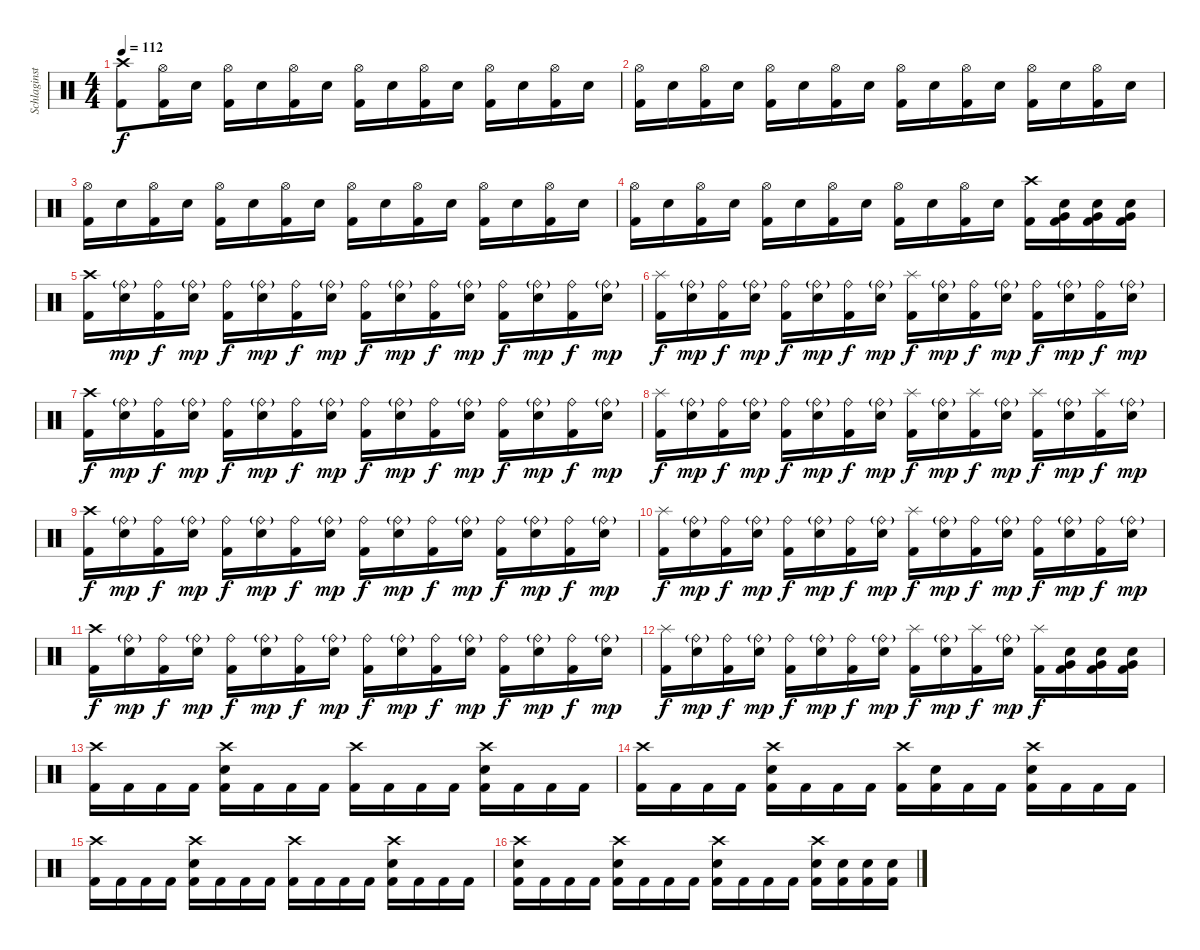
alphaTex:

\track ("Schlaginstrumente - Auswahl" "Schlaginst") {instrument percussion}
\staff {score}
\articulation defaults
\ts (4 4)
\tempo 112
\clef neutral
\ks c
("Crash high (hit)" "Kick (hit) 2").8{dy f} ("Hi-Hat (open)" "Kick (hit) 2").16 "Snare (hit) 2".16 ("Hi-Hat (open)" "Kick (hit) 2").16 "Snare (hit) 2".16 ("Hi-Hat (open)" "Kick (hit) 2").16 "Snare (hit) 2".16 ("Hi-Hat (open)" "Kick (hit) 2").16 "Snare (hit) 2".16 ("Hi-Hat (open)" "Kick (hit) 2").16 "Snare (hit) 2".16 ("Hi-Hat (open)" "Kick (hit) 2").16 "Snare (hit) 2".16 ("Hi-Hat (open)" "Kick (hit) 2").16 "Snare (hit) 2".16 |
("Hi-Hat (open)" "Kick (hit) 2").16 "Snare (hit) 2".16 ("Hi-Hat (open)" "Kick (hit) 2").16 "Snare (hit) 2".16 ("Hi-Hat (open)" "Kick (hit) 2").16 "Snare (hit) 2".16 ("Hi-Hat (open)" "Kick (hit) 2").16 "Snare (hit) 2".16 ("Hi-Hat (open)" "Kick (hit) 2").16 "Snare (hit) 2".16 ("Hi-Hat (open)" "Kick (hit) 2").16 "Snare (hit) 2".16 ("Hi-Hat (open)" "Kick (hit) 2").16 "Snare (hit) 2".16 ("Hi-Hat (open)" "Kick (hit) 2").16 "Snare (hit) 2".16 |
("Hi-Hat (open)" "Kick (hit) 2").16 "Snare (hit) 2".16 ("Hi-Hat (open)" "Kick (hit) 2").16 "Snare (hit) 2".16 ("Hi-Hat (open)" "Kick (hit) 2").16 "Snare (hit) 2".16 ("Hi-Hat (open)" "Kick (hit) 2").16 "Snare (hit) 2".16 ("Hi-Hat (open)" "Kick (hit) 2").16 "Snare (hit) 2".16 ("Hi-Hat (open)" "Kick (hit) 2").16 "Snare (hit) 2".16 ("Hi-Hat (open)" "Kick (hit) 2").16 "Snare (hit) 2".16 ("Hi-Hat (open)" "Kick (hit) 2").16 "Snare (hit) 2".16 |
("Hi-Hat (open)" "Kick (hit) 2").16 "Snare (hit) 2".16 ("Hi-Hat (open)" "Kick (hit) 2").16 "Snare (hit) 2".16 ("Hi-Hat (open)" "Kick (hit) 2").16 "Snare (hit) 2".16 ("Hi-Hat (open)" "Kick (hit) 2").16 "Snare (hit) 2".16 ("Hi-Hat (open)" "Kick (hit) 2").16 "Snare (hit) 2".16 ("Hi-Hat (open)" "Kick (hit) 2").16 "Snare (hit) 2".16 ("Crash high (hit)" "Kick (hit) 2").16 ("Snare (hit) 2" "Very Low Tom (hit)" "Kick (hit) 2").16 ("Snare (hit) 2" "Very Low Tom (hit)" "Kick (hit) 2").16 ("Snare (hit) 2" "Very Low Tom (hit)" "Kick (hit) 2").16 |
("Crash high (hit)" "Kick (hit) 2").16 ("Ride (bell)"{g} "Snare (hit) 2").16{dy mp} ("Ride (bell)" "Kick (hit) 2").16{dy f} ("Ride (bell)"{g} "Snare (hit) 2").16{dy mp} ("Ride (bell)" "Kick (hit) 2").16{dy f} ("Ride (bell)"{g} "Snare (hit) 2").16{dy mp} ("Ride (bell)" "Kick (hit) 2").16{dy f} ("Ride (bell)"{g} "Snare (hit) 2").16{dy mp} ("Ride (bell)" "Kick (hit) 2").16{dy f} ("Ride (bell)"{g} "Snare (hit) 2").16{dy mp} ("Ride (bell)" "Kick (hit) 2").16{dy f} ("Ride (bell)"{g} "Snare (hit) 2").16{dy mp} ("Ride (bell)" "Kick (hit) 2").16{dy f} ("Ride (bell)"{g} "Snare (hit) 2").16{dy mp} ("Ride (bell)" "Kick (hit) 2").16{dy f} ("Ride (bell)"{g} "Snare (hit) 2").16{dy mp} |
("Splash (hit)" "Kick (hit) 2").16{dy f} ("Ride (bell)"{g} "Snare (hit) 2").16{dy mp} ("Ride (bell)" "Kick (hit) 2").16{dy f} ("Ride (bell)"{g} "Snare (hit) 2").16{dy mp} ("Ride (bell)" "Kick (hit) 2").16{dy f} ("Ride (bell)"{g} "Snare (hit) 2").16{dy mp} ("Ride (bell)" "Kick (hit) 2").16{dy f} ("Ride (bell)"{g} "Snare (hit) 2").16{dy mp} ("Splash (hit)" "Kick (hit) 2").16{dy f} ("Ride (bell)"{g} "Snare (hit) 2").16{dy mp} ("Ride (bell)" "Kick (hit) 2").16{dy f} ("Ride (bell)"{g} "Snare (hit) 2").16{dy mp} ("Ride (bell)" "Kick (hit) 2").16{dy f} ("Ride (bell)"{g} "Snare (hit) 2").16{dy mp} ("Ride (bell)" "Kick (hit) 2").16{dy f} ("Ride (bell)"{g} "Snare (hit) 2").16{dy mp} |
("Crash high (hit)" "Kick (hit) 2").16{dy f} ("Ride (bell)"{g} "Snare (hit) 2").16{dy mp} ("Ride (bell)" "Kick (hit) 2").16{dy f} ("Ride (bell)"{g} "Snare (hit) 2").16{dy mp} ("Ride (bell)" "Kick (hit) 2").16{dy f} ("Ride (bell)"{g} "Snare (hit) 2").16{dy mp} ("Ride (bell)" "Kick (hit) 2").16{dy f} ("Ride (bell)"{g} "Snare (hit) 2").16{dy mp} ("Ride (bell)" "Kick (hit) 2").16{dy f} ("Ride (bell)"{g} "Snare (hit) 2").16{dy mp} ("Ride (bell)" "Kick (hit) 2").16{dy f} ("Ride (bell)"{g} "Snare (hit) 2").16{dy mp} ("Ride (bell)" "Kick (hit) 2").16{dy f} ("Ride (bell)"{g} "Snare (hit) 2").16{dy mp} ("Ride (bell)" "Kick (hit) 2").16{dy f} ("Ride (bell)"{g} "Snare (hit) 2").16{dy mp} |
("Splash (hit)" "Kick (hit) 2").16{dy f} ("Ride (bell)"{g} "Snare (hit) 2").16{dy mp} ("Ride (bell)" "Kick (hit) 2").16{dy f} ("Ride (bell)"{g} "Snare (hit) 2").16{dy mp} ("Ride (bell)" "Kick (hit) 2").16{dy f} ("Ride (bell)"{g} "Snare (hit) 2").16{dy mp} ("Ride (bell)" "Kick (hit) 2").16{dy f} ("Ride (bell)"{g} "Snare (hit) 2").16{dy mp} ("Splash (hit)" "Kick (hit) 2").16{dy f} ("Ride (bell)"{g} "Snare (hit) 2").16{dy mp} ("Splash (hit)" "Kick (hit) 2").16{dy f} ("Ride (bell)"{g} "Snare (hit) 2").16{dy mp} ("Splash (hit)" "Kick (hit) 2").16{dy f} ("Ride (bell)"{g} "Snare (hit) 2").16{dy mp} ("Splash (hit)" "Kick (hit) 2").16{dy f} ("Ride (bell)"{g} "Snare (hit) 2").16{dy mp} |
("Crash high (hit)" "Kick (hit) 2").16{dy f} ("Ride (bell)"{g} "Snare (hit) 2").16{dy mp} ("Ride (bell)" "Kick (hit) 2").16{dy f} ("Ride (bell)"{g} "Snare (hit) 2").16{dy mp} ("Ride (bell)" "Kick (hit) 2").16{dy f} ("Ride (bell)"{g} "Snare (hit) 2").16{dy mp} ("Ride (bell)" "Kick (hit) 2").16{dy f} ("Ride (bell)"{g} "Snare (hit) 2").16{dy mp} ("Ride (bell)" "Kick (hit) 2").16{dy f} ("Ride (bell)"{g} "Snare (hit) 2").16{dy mp} ("Ride (bell)" "Kick (hit) 2").16{dy f} ("Ride (bell)"{g} "Snare (hit) 2").16{dy mp} ("Ride (bell)" "Kick (hit) 2").16{dy f} ("Ride (bell)"{g} "Snare (hit) 2").16{dy mp} ("Ride (bell)" "Kick (hit) 2").16{dy f} ("Ride (bell)"{g} "Snare (hit) 2").16{dy mp} |
("Splash (hit)" "Kick (hit) 2").16{dy f} ("Ride (bell)"{g} "Snare (hit) 2").16{dy mp} ("Ride (bell)" "Kick (hit) 2").16{dy f} ("Ride (bell)"{g} "Snare (hit) 2").16{dy mp} ("Ride (bell)" "Kick (hit) 2").16{dy f} ("Ride (bell)"{g} "Snare (hit) 2").16{dy mp} ("Ride (bell)" "Kick (hit) 2").16{dy f} ("Ride (bell)"{g} "Snare (hit) 2").16{dy mp} ("Splash (hit)" "Kick (hit) 2").16{dy f} ("Ride (bell)"{g} "Snare (hit) 2").16{dy mp} ("Ride (bell)" "Kick (hit) 2").16{dy f} ("Ride (bell)"{g} "Snare (hit) 2").16{dy mp} ("Ride (bell)" "Kick (hit) 2").16{dy f} ("Ride (bell)"{g} "Snare (hit) 2").16{dy mp} ("Ride (bell)" "Kick (hit) 2").16{dy f} ("Ride (bell)"{g} "Snare (hit) 2").16{dy mp} |
("Crash high (hit)" "Kick (hit) 2").16{dy f} ("Ride (bell)"{g} "Snare (hit) 2").16{dy mp} ("Ride (bell)" "Kick (hit) 2").16{dy f} ("Ride (bell)"{g} "Snare (hit) 2").16{dy mp} ("Ride (bell)" "Kick (hit) 2").16{dy f} ("Ride (bell)"{g} "Snare (hit) 2").16{dy mp} ("Ride (bell)" "Kick (hit) 2").16{dy f} ("Ride (bell)"{g} "Snare (hit) 2").16{dy mp} ("Ride (bell)" "Kick (hit) 2").16{dy f} ("Ride (bell)"{g} "Snare (hit) 2").16{dy mp} ("Ride (bell)" "Kick (hit) 2").16{dy f} ("Ride (bell)"{g} "Snare (hit) 2").16{dy mp} ("Ride (bell)" "Kick (hit) 2").16{dy f} ("Ride (bell)"{g} "Snare (hit) 2").16{dy mp} ("Ride (bell)" "Kick (hit) 2").16{dy f} ("Ride (bell)"{g} "Snare (hit) 2").16{dy mp} |
("Splash (hit)" "Kick (hit) 2").16{dy f} ("Ride (bell)"{g} "Snare (hit) 2").16{dy mp} ("Ride (bell)" "Kick (hit) 2").16{dy f} ("Ride (bell)"{g} "Snare (hit) 2").16{dy mp} ("Ride (bell)" "Kick (hit) 2").16{dy f} ("Ride (bell)"{g} "Snare (hit) 2").16{dy mp} ("Ride (bell)" "Kick (hit) 2").16{dy f} ("Ride (bell)"{g} "Snare (hit) 2").16{dy mp} ("Splash (hit)" "Kick (hit) 2").16{dy f} ("Ride (bell)"{g} "Snare (hit) 2").16{dy mp} ("Splash (hit)" "Kick (hit) 2").16{dy f} ("Ride (bell)"{g} "Snare (hit) 2").16{dy mp} ("Splash (hit)" "Kick (hit) 2").16{dy f} ("Snare (hit) 2" "Very Low Tom (hit)" "Kick (hit) 2").16 ("Snare (hit) 2" "Very Low Tom (hit)" "Kick (hit) 2").16 ("Snare (hit) 2" "Very Low Tom (hit)" "Kick (hit) 2").16 |
("Crash high (hit)" "Kick (hit) 2").16 "Kick (hit) 2".16 "Kick (hit) 2".16 "Kick (hit) 2".16 ("Crash high (hit)" "Snare (hit) 2" "Kick (hit) 2").16 "Kick (hit) 2".16 "Kick (hit) 2".16 "Kick (hit) 2".16 ("Crash high (hit)" "Kick (hit) 2").16 "Kick (hit) 2".16 "Kick (hit) 2".16 "Kick (hit) 2".16 ("Crash high (hit)" "Snare (hit) 2" "Kick (hit) 2").16 "Kick (hit) 2".16 "Kick (hit) 2".16 "Kick (hit) 2".16 |
("Crash high (hit)" "Kick (hit) 2").16 "Kick (hit) 2".16 "Kick (hit) 2".16 "Kick (hit) 2".16 ("Crash high (hit)" "Snare (hit) 2" "Kick (hit) 2").16 "Kick (hit) 2".16 "Kick (hit) 2".16 "Kick (hit) 2".16 ("Crash high (hit)" "Kick (hit) 2").16 ("Snare (hit) 2" "Kick (hit) 2").16 "Kick (hit) 2".16 "Kick (hit) 2".16 ("Crash high (hit)" "Snare (hit) 2" "Kick (hit) 2").16 "Kick (hit) 2".16 "Kick (hit) 2".16 "Kick (hit) 2".16 |
("Crash high (hit)" "Kick (hit) 2").16 "Kick (hit) 2".16 "Kick (hit) 2".16 "Kick (hit) 2".16 ("Crash high (hit)" "Snare (hit) 2" "Kick (hit) 2").16 "Kick (hit) 2".16 "Kick (hit) 2".16 "Kick (hit) 2".16 ("Crash high (hit)" "Kick (hit) 2").16 "Kick (hit) 2".16 "Kick (hit) 2".16 "Kick (hit) 2".16 ("Crash high (hit)" "Snare (hit) 2" "Kick (hit) 2").16 "Kick (hit) 2".16 "Kick (hit) 2".16 "Kick (hit) 2".16 |
("Crash high (hit)" "Snare (hit) 2" "Kick (hit) 2").16 "Kick (hit) 2".16 "Kick (hit) 2".16 "Kick (hit) 2".16 ("Crash high (hit)" "Snare (hit) 2" "Kick (hit) 2").16 "Kick (hit) 2".16 "Kick (hit) 2".16 "Kick (hit) 2".16 ("Crash high (hit)" "Snare (hit) 2" "Kick (hit) 2").16 "Kick (hit) 2".16 "Kick (hit) 2".16 "Kick (hit) 2".16 ("Crash high (hit)" "Snare (hit) 2" "Kick (hit) 2").16 ("Snare (hit) 2" "Kick (hit) 2").16 ("Snare (hit) 2" "Kick (hit) 2").16 ("Snare (hit) 2" "Kick (hit) 2").16
